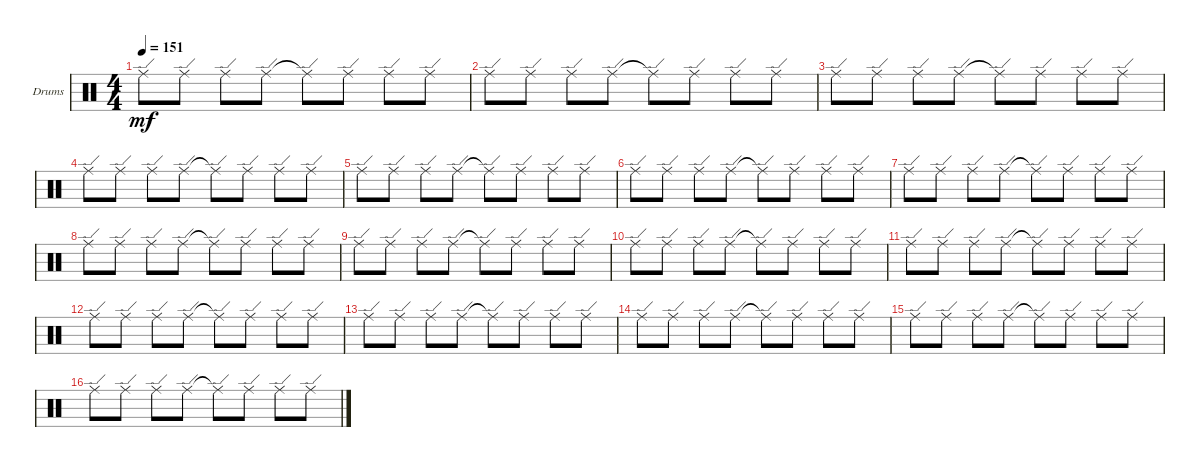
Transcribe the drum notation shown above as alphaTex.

\bracketExtendMode groupsimilarinstruments
\firstSystemTrackNameOrientation horizontal
\otherSystemsTrackNameOrientation horizontal
\track ("Drumkit" "Drums") {instrument percussion}
\staff {score}
\articulation defaults
\ts (4 4)
\tempo 151
\clef neutral
\ks aminor "Ride (edge)".8{dy mf} "Ride (edge)".8 "Ride (edge)".8 "Ride (edge)".8 "Ride (edge)"{t}.8 "Ride (edge)".8 "Ride (edge)".8 "Ride (edge)".8
|
"Ride (edge)".8 "Ride (edge)".8 "Ride (edge)".8 "Ride (edge)".8 "Ride (edge)"{t}.8 "Ride (edge)".8 "Ride (edge)".8 "Ride (edge)".8 |
"Ride (edge)".8 "Ride (edge)".8 "Ride (edge)".8 "Ride (edge)".8 "Ride (edge)"{t}.8 "Ride (edge)".8 "Ride (edge)".8 "Ride (edge)".8 |
"Ride (edge)".8 "Ride (edge)".8 "Ride (edge)".8 "Ride (edge)".8 "Ride (edge)"{t}.8 "Ride (edge)".8 "Ride (edge)".8 "Ride (edge)".8 |
"Ride (edge)".8 "Ride (edge)".8 "Ride (edge)".8 "Ride (edge)".8 "Ride (edge)"{t}.8 "Ride (edge)".8 "Ride (edge)".8 "Ride (edge)".8 |
"Ride (edge)".8 "Ride (edge)".8 "Ride (edge)".8 "Ride (edge)".8 "Ride (edge)"{t}.8 "Ride (edge)".8 "Ride (edge)".8 "Ride (edge)".8 |
"Ride (edge)".8 "Ride (edge)".8 "Ride (edge)".8 "Ride (edge)".8 "Ride (edge)"{t}.8 "Ride (edge)".8 "Ride (edge)".8 "Ride (edge)".8 |
"Ride (edge)".8 "Ride (edge)".8 "Ride (edge)".8 "Ride (edge)".8 "Ride (edge)"{t}.8 "Ride (edge)".8 "Ride (edge)".8 "Ride (edge)".8 |
"Ride (edge)".8 "Ride (edge)".8 "Ride (edge)".8 "Ride (edge)".8 "Ride (edge)"{t}.8 "Ride (edge)".8 "Ride (edge)".8 "Ride (edge)".8 |
"Ride (edge)".8 "Ride (edge)".8 "Ride (edge)".8 "Ride (edge)".8 "Ride (edge)"{t}.8 "Ride (edge)".8 "Ride (edge)".8 "Ride (edge)".8 |
"Ride (edge)".8 "Ride (edge)".8 "Ride (edge)".8 "Ride (edge)".8 "Ride (edge)"{t}.8 "Ride (edge)".8 "Ride (edge)".8 "Ride (edge)".8 |
"Ride (edge)".8 "Ride (edge)".8 "Ride (edge)".8 "Ride (edge)".8 "Ride (edge)"{t}.8 "Ride (edge)".8 "Ride (edge)".8 "Ride (edge)".8 |
"Ride (edge)".8 "Ride (edge)".8 "Ride (edge)".8 "Ride (edge)".8 "Ride (edge)"{t}.8 "Ride (edge)".8 "Ride (edge)".8 "Ride (edge)".8 |
"Ride (edge)".8 "Ride (edge)".8 "Ride (edge)".8 "Ride (edge)".8 "Ride (edge)"{t}.8 "Ride (edge)".8 "Ride (edge)".8 "Ride (edge)".8 |
"Ride (edge)".8 "Ride (edge)".8 "Ride (edge)".8 "Ride (edge)".8 "Ride (edge)"{t}.8 "Ride (edge)".8 "Ride (edge)".8 "Ride (edge)".8 |
"Ride (edge)".8 "Ride (edge)".8 "Ride (edge)".8 "Ride (edge)".8 "Ride (edge)"{t}.8 "Ride (edge)".8 "Ride (edge)".8 "Ride (edge)".8
